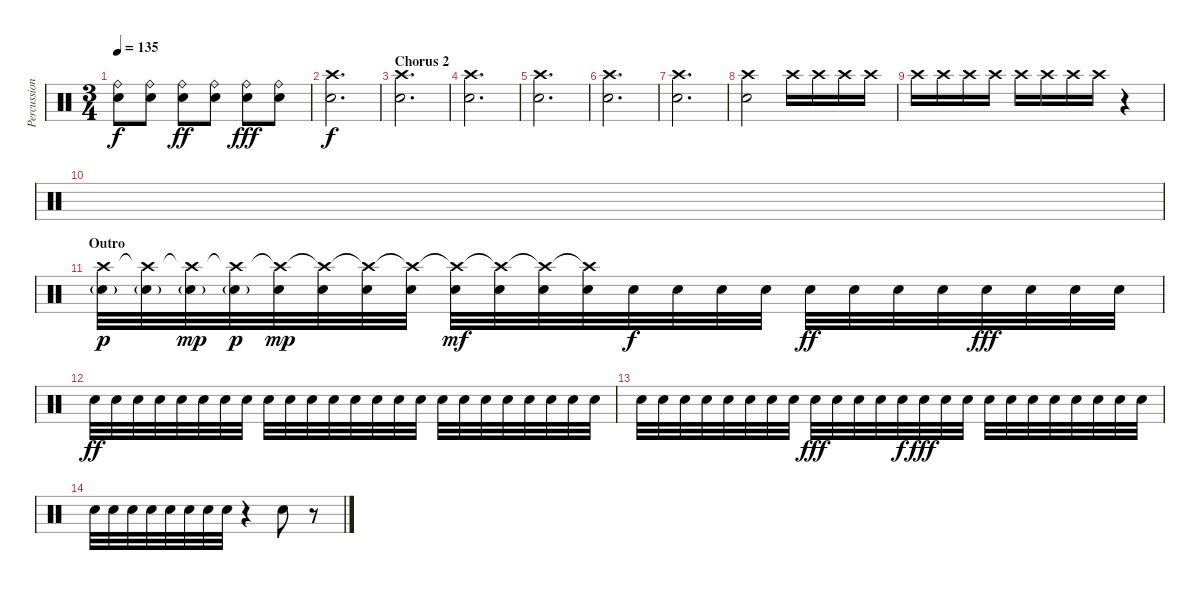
\track ("Percussion" "Percussion") {instrument percussion}
\staff {score}
\articulation defaults
\ts (3 4)
\tempo 135
\clef neutral
\ks c
("Electric Snare (hit)" "Ride (bell)").8{dy f} ("Electric Snare (hit)" "Ride (bell)").8 ("Electric Snare (hit)" "Ride (bell)").8{dy ff} ("Electric Snare (hit)" "Ride (bell)").8 ("Electric Snare (hit)" "Ride (bell)").8{dy fff} ("Electric Snare (hit)" "Ride (bell)").8 |
("Electric Snare (hit)" "Crash high (hit)").2{d dy f} |
\section ("" "Chorus 2")
("Electric Snare (hit)" "Crash high (hit)").2{d} |
("Electric Snare (hit)" "Crash high (hit)").2{d} |
("Electric Snare (hit)" "Crash high (hit)").2{d} |
("Electric Snare (hit)" "Crash high (hit)").2{d} |
("Electric Snare (hit)" "Crash high (hit)").2{d} |
("Electric Snare (hit)" "Crash high (hit)").2 "Crash high (hit)".16{volume 8} "Crash high (hit)".16{volume 12} "Crash high (hit)".16 "Crash high (hit)".16 |
"Crash high (hit)".16 "Crash high (hit)".16{volume 0} "Crash high (hit)".16 "Crash high (hit)".16 "Crash high (hit)".16 "Crash high (hit)".16 "Crash high (hit)".16 "Crash high (hit)".16 r.4 |
|
\section ("" "Outro")
("Electric Snare (hit)"{g} "Crash high (hit)").32{dy p volume 16} ("Electric Snare (hit)"{g} "Crash high (hit)"{t}).32 ("Electric Snare (hit)"{g} "Crash high (hit)"{t}).32{dy mp} ("Electric Snare (hit)"{g} "Crash high (hit)"{t}).32{dy p} ("Electric Snare (hit)" "Crash high (hit)"{t}).32{dy mp} ("Electric Snare (hit)" "Crash high (hit)"{t}).32 ("Electric Snare (hit)" "Crash high (hit)"{t}).32 ("Electric Snare (hit)" "Crash high (hit)"{t}).32 ("Electric Snare (hit)" "Crash high (hit)"{t}).32{dy mf} ("Electric Snare (hit)" "Crash high (hit)"{t}).32 ("Electric Snare (hit)" "Crash high (hit)"{t}).32 ("Electric Snare (hit)" "Crash high (hit)"{t}).32 "Electric Snare (hit)".32{dy f} "Electric Snare (hit)".32 "Electric Snare (hit)".32 "Electric Snare (hit)".32 "Electric Snare (hit)".32{dy ff} "Electric Snare (hit)".32 "Electric Snare (hit)".32 "Electric Snare (hit)".32 "Electric Snare (hit)".32{dy fff} "Electric Snare (hit)".32 "Electric Snare (hit)".32 "Electric Snare (hit)".32 |
"Electric Snare (hit)".32{dy ff} "Electric Snare (hit)".32 "Electric Snare (hit)".32 "Electric Snare (hit)".32 "Electric Snare (hit)".32 "Electric Snare (hit)".32 "Electric Snare (hit)".32 "Electric Snare (hit)".32 "Electric Snare (hit)".32 "Electric Snare (hit)".32 "Electric Snare (hit)".32 "Electric Snare (hit)".32 "Electric Snare (hit)".32 "Electric Snare (hit)".32 "Electric Snare (hit)".32 "Electric Snare (hit)".32 "Electric Snare (hit)".32 "Electric Snare (hit)".32 "Electric Snare (hit)".32 "Electric Snare (hit)".32 "Electric Snare (hit)".32 "Electric Snare (hit)".32 "Electric Snare (hit)".32 "Electric Snare (hit)".32 |
"Electric Snare (hit)".32 "Electric Snare (hit)".32 "Electric Snare (hit)".32 "Electric Snare (hit)".32 "Electric Snare (hit)".32 "Electric Snare (hit)".32 "Electric Snare (hit)".32 "Electric Snare (hit)".32 "Electric Snare (hit)".32{dy fff} "Electric Snare (hit)".32 "Electric Snare (hit)".32 "Electric Snare (hit)".32 "Electric Snare (hit)".32{dy f} "Electric Snare (hit)".32{dy fff} "Electric Snare (hit)".32 "Electric Snare (hit)".32 "Electric Snare (hit)".32 "Electric Snare (hit)".32 "Electric Snare (hit)".32 "Electric Snare (hit)".32 "Electric Snare (hit)".32 "Electric Snare (hit)".32 "Electric Snare (hit)".32 "Electric Snare (hit)".32 |
"Electric Snare (hit)".32 "Electric Snare (hit)".32 "Electric Snare (hit)".32 "Electric Snare (hit)".32 "Electric Snare (hit)".32 "Electric Snare (hit)".32 "Electric Snare (hit)".32 "Electric Snare (hit)".32 r.4 "Electric Snare (hit)".8{volume 0} r.8
